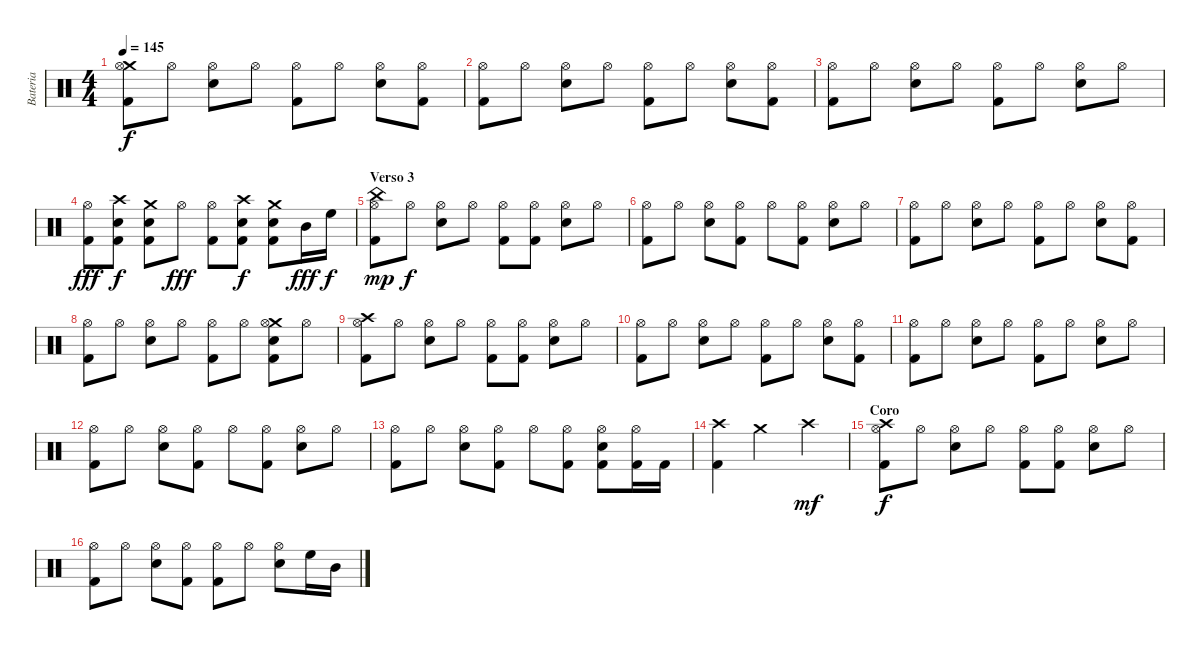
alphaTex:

\track ("Bateria" "Bateria") {instrument percussion}
\staff {score}
\articulation defaults
\ts (4 4)
\tempo 145
\clef neutral
\ks c
("Crash medium (hit)" "Hi-Hat (open)" "Kick (hit) 2").8{dy f} "Hi-Hat (open)".8 ("Hi-Hat (open)" "Electric Snare (hit)").8 "Hi-Hat (open)".8 ("Hi-Hat (open)" "Kick (hit) 2").8 "Hi-Hat (open)".8 ("Hi-Hat (open)" "Electric Snare (hit)").8 ("Hi-Hat (open)" "Kick (hit) 2").8 |
("Hi-Hat (open)" "Kick (hit) 2").8 "Hi-Hat (open)".8 ("Hi-Hat (open)" "Electric Snare (hit)").8 "Hi-Hat (open)".8 ("Hi-Hat (open)" "Kick (hit) 2").8 "Hi-Hat (open)".8 ("Hi-Hat (open)" "Electric Snare (hit)").8 ("Hi-Hat (open)" "Kick (hit) 2").8 |
("Hi-Hat (open)" "Kick (hit) 2").8 "Hi-Hat (open)".8 ("Hi-Hat (open)" "Electric Snare (hit)").8 "Hi-Hat (open)".8 ("Hi-Hat (open)" "Kick (hit) 2").8 "Hi-Hat (open)".8 ("Hi-Hat (open)" "Electric Snare (hit)").8 "Hi-Hat (open)".8 |
("Hi-Hat (open)" "Kick (hit) 2").8{dy fff} ("Crash high (hit)" "Electric Snare (hit)" "Kick (hit) 2").8{dy f} ("Crash medium (hit)" "Electric Snare (hit)" "Kick (hit) 2").8 "Hi-Hat (open)".8{dy fff} ("Hi-Hat (open)" "Kick (hit) 2").8 ("Crash high (hit)" "Electric Snare (hit)" "Kick (hit) 2").8{dy f} ("Crash medium (hit)" "Electric Snare (hit)" "Kick (hit) 2").8 "Mid Tom (hit)".16{dy fff} "High Floor Tom (hit)".16{dy f} |
\section ("" "Verso 3")
("China (hit)" "Hi-Hat (open)" "Kick (hit) 2").8{dy mp} "Hi-Hat (open)".8{dy f} ("Hi-Hat (open)" "Electric Snare (hit)").8 "Hi-Hat (open)".8 ("Hi-Hat (open)" "Kick (hit) 2").8 ("Hi-Hat (open)" "Kick (hit) 2").8 ("Hi-Hat (open)" "Electric Snare (hit)").8 "Hi-Hat (open)".8 |
("Hi-Hat (open)" "Kick (hit) 2").8 "Hi-Hat (open)".8 ("Hi-Hat (open)" "Electric Snare (hit)").8 ("Hi-Hat (open)" "Kick (hit) 2").8 "Hi-Hat (open)".8 ("Hi-Hat (open)" "Kick (hit) 2").8 ("Hi-Hat (open)" "Electric Snare (hit)").8 "Hi-Hat (open)".8 |
("Hi-Hat (open)" "Kick (hit) 2").8 "Hi-Hat (open)".8 ("Hi-Hat (open)" "Electric Snare (hit)").8 "Hi-Hat (open)".8 ("Hi-Hat (open)" "Kick (hit) 2").8 "Hi-Hat (open)".8 ("Hi-Hat (open)" "Electric Snare (hit)").8 ("Hi-Hat (open)" "Kick (hit) 2").8 |
("Hi-Hat (open)" "Kick (hit) 2").8 "Hi-Hat (open)".8 ("Hi-Hat (open)" "Electric Snare (hit)").8 "Hi-Hat (open)".8 ("Hi-Hat (open)" "Kick (hit) 2").8 "Hi-Hat (open)".8 ("Crash medium (hit)" "Hi-Hat (open)" "Electric Snare (hit)" "Kick (hit) 2").8 "Hi-Hat (open)".8 |
("Crash high (hit)" "Hi-Hat (open)" "Kick (hit) 2").8 "Hi-Hat (open)".8 ("Hi-Hat (open)" "Electric Snare (hit)").8 "Hi-Hat (open)".8 ("Hi-Hat (open)" "Kick (hit) 2").8 ("Hi-Hat (open)" "Kick (hit) 2").8 ("Hi-Hat (open)" "Electric Snare (hit)").8 "Hi-Hat (open)".8 |
("Hi-Hat (open)" "Kick (hit) 2").8 "Hi-Hat (open)".8 ("Hi-Hat (open)" "Electric Snare (hit)").8 "Hi-Hat (open)".8 ("Hi-Hat (open)" "Kick (hit) 2").8 "Hi-Hat (open)".8 ("Hi-Hat (open)" "Electric Snare (hit)").8 ("Hi-Hat (open)" "Kick (hit) 2").8 |
("Hi-Hat (open)" "Kick (hit) 2").8 "Hi-Hat (open)".8 ("Hi-Hat (open)" "Electric Snare (hit)").8 "Hi-Hat (open)".8 ("Hi-Hat (open)" "Kick (hit) 2").8 "Hi-Hat (open)".8 ("Hi-Hat (open)" "Electric Snare (hit)").8 "Hi-Hat (open)".8 |
("Hi-Hat (open)" "Kick (hit) 2").8 "Hi-Hat (open)".8 ("Hi-Hat (open)" "Electric Snare (hit)").8 ("Hi-Hat (open)" "Kick (hit) 2").8 "Hi-Hat (open)".8 ("Hi-Hat (open)" "Kick (hit) 2").8 ("Hi-Hat (open)" "Electric Snare (hit)").8 "Hi-Hat (open)".8 |
("Hi-Hat (open)" "Kick (hit) 2").8 "Hi-Hat (open)".8 ("Hi-Hat (open)" "Electric Snare (hit)").8 ("Hi-Hat (open)" "Kick (hit) 2").8 "Hi-Hat (open)".8 ("Hi-Hat (open)" "Kick (hit) 2").8 ("Hi-Hat (open)" "Electric Snare (hit)" "Kick (hit) 2").8 ("Hi-Hat (open)" "Kick (hit) 2").16 "Kick (hit) 2".16 |
("Crash high (hit)" "Kick (hit) 2").4 "Crash medium (hit)".2 "Crash high (hit)".4{dy mf} |
\section ("" "Coro")
("Crash high (hit)" "Hi-Hat (open)" "Kick (hit) 2").8{dy f} "Hi-Hat (open)".8 ("Hi-Hat (open)" "Electric Snare (hit)").8 "Hi-Hat (open)".8 ("Hi-Hat (open)" "Kick (hit) 2").8 ("Hi-Hat (open)" "Kick (hit) 2").8 ("Hi-Hat (open)" "Electric Snare (hit)").8 "Hi-Hat (open)".8 |
("Hi-Hat (open)" "Kick (hit) 2").8 "Hi-Hat (open)".8 ("Hi-Hat (open)" "Electric Snare (hit)").8 ("Hi-Hat (open)" "Kick (hit) 2").8 ("Hi-Hat (open)" "Kick (hit) 2").8 "Hi-Hat (open)".8 ("Hi-Hat (open)" "Electric Snare (hit)").8 "High Floor Tom (hit)".16 "Mid Tom (hit)".16
